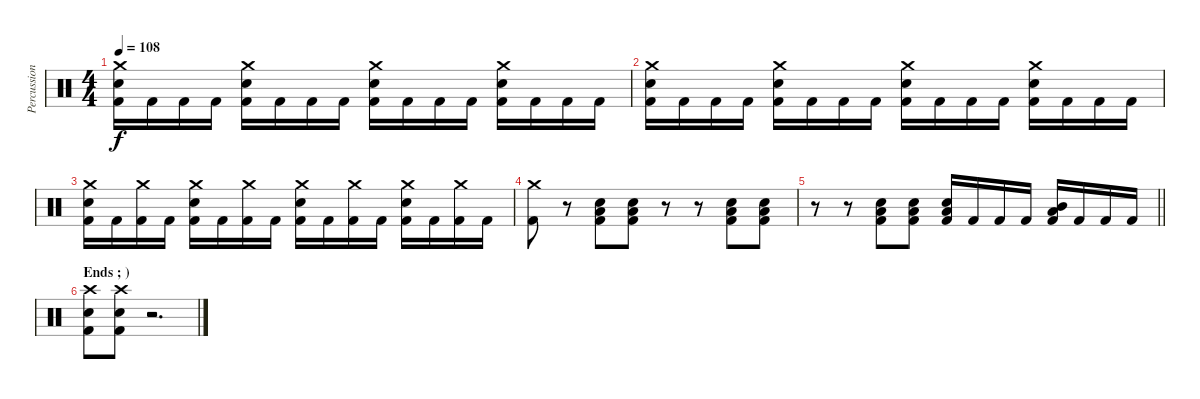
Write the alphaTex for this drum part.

\track ("Percussion" "Percussion") {instrument percussion}
\staff {score}
\articulation defaults
\ts (4 4)
\tempo 108
\clef neutral
\ks c
("Crash medium (hit)" "Electric Snare (hit)" "Kick (hit) 2").16{dy f} "Kick (hit) 2".16 "Kick (hit) 2".16 "Kick (hit) 2".16 ("Crash medium (hit)" "Electric Snare (hit)" "Kick (hit) 2").16 "Kick (hit) 2".16 "Kick (hit) 2".16 "Kick (hit) 2".16 ("Crash medium (hit)" "Electric Snare (hit)" "Kick (hit) 2").16 "Kick (hit) 2".16 "Kick (hit) 2".16 "Kick (hit) 2".16 ("Crash medium (hit)" "Electric Snare (hit)" "Kick (hit) 2").16 "Kick (hit) 2".16 "Kick (hit) 2".16 "Kick (hit) 2".16 |
("Crash medium (hit)" "Electric Snare (hit)" "Kick (hit) 2").16 "Kick (hit) 2".16 "Kick (hit) 2".16 "Kick (hit) 2".16 ("Crash medium (hit)" "Electric Snare (hit)" "Kick (hit) 2").16 "Kick (hit) 2".16 "Kick (hit) 2".16 "Kick (hit) 2".16 ("Crash medium (hit)" "Electric Snare (hit)" "Kick (hit) 2").16 "Kick (hit) 2".16 "Kick (hit) 2".16 "Kick (hit) 2".16 ("Crash medium (hit)" "Electric Snare (hit)" "Kick (hit) 2").16 "Kick (hit) 2".16 "Kick (hit) 2".16 "Kick (hit) 2".16 |
("Crash medium (hit)" "Electric Snare (hit)" "Kick (hit) 2").16 "Kick (hit) 2".16 ("Crash medium (hit)" "Kick (hit) 2").16 "Kick (hit) 2".16 ("Crash medium (hit)" "Electric Snare (hit)" "Kick (hit) 2").16 "Kick (hit) 2".16 ("Crash medium (hit)" "Kick (hit) 2").16 "Kick (hit) 2".16 ("Crash medium (hit)" "Electric Snare (hit)" "Kick (hit) 2").16 "Kick (hit) 2".16 ("Crash medium (hit)" "Kick (hit) 2").16 "Kick (hit) 2".16 ("Crash medium (hit)" "Electric Snare (hit)" "Kick (hit) 2").16 "Kick (hit) 2".16 ("Crash medium (hit)" "Kick (hit) 2").16 "Kick (hit) 2".16 |
("Crash medium (hit)" "Kick (hit) 2").8 r.8 ("Low Floor Tom (hit)" "Electric Snare (hit)" "Kick (hit) 2").8 ("Low Floor Tom (hit)" "Electric Snare (hit)" "Kick (hit) 2").8 r.8 r.8 ("Low Floor Tom (hit)" "Electric Snare (hit)" "Kick (hit) 2").8 ("Low Floor Tom (hit)" "Electric Snare (hit)" "Kick (hit) 2").8 |
\barLineRight lightlight
r.8 r.8 ("Low Floor Tom (hit)" "Electric Snare (hit)" "Kick (hit) 2").8 ("Low Floor Tom (hit)" "Electric Snare (hit)" "Kick (hit) 2").8 ("Low Floor Tom (hit)" "Electric Snare (hit)" "Kick (hit) 2").16 "Kick (hit) 2".16 "Kick (hit) 2".16 "Kick (hit) 2".16 ("Mid Tom (hit)" "Low Tom (hit)" "Kick (hit) 2").16 "Kick (hit) 2".16 "Kick (hit) 2".16 "Kick (hit) 2".16 |
\section ("" "Ends ; )")
("Crash high (hit)" "Electric Snare (hit)" "Kick (hit) 2").8 ("Crash high (hit)" "Electric Snare (hit)" "Kick (hit) 2").8 r.2{d}
